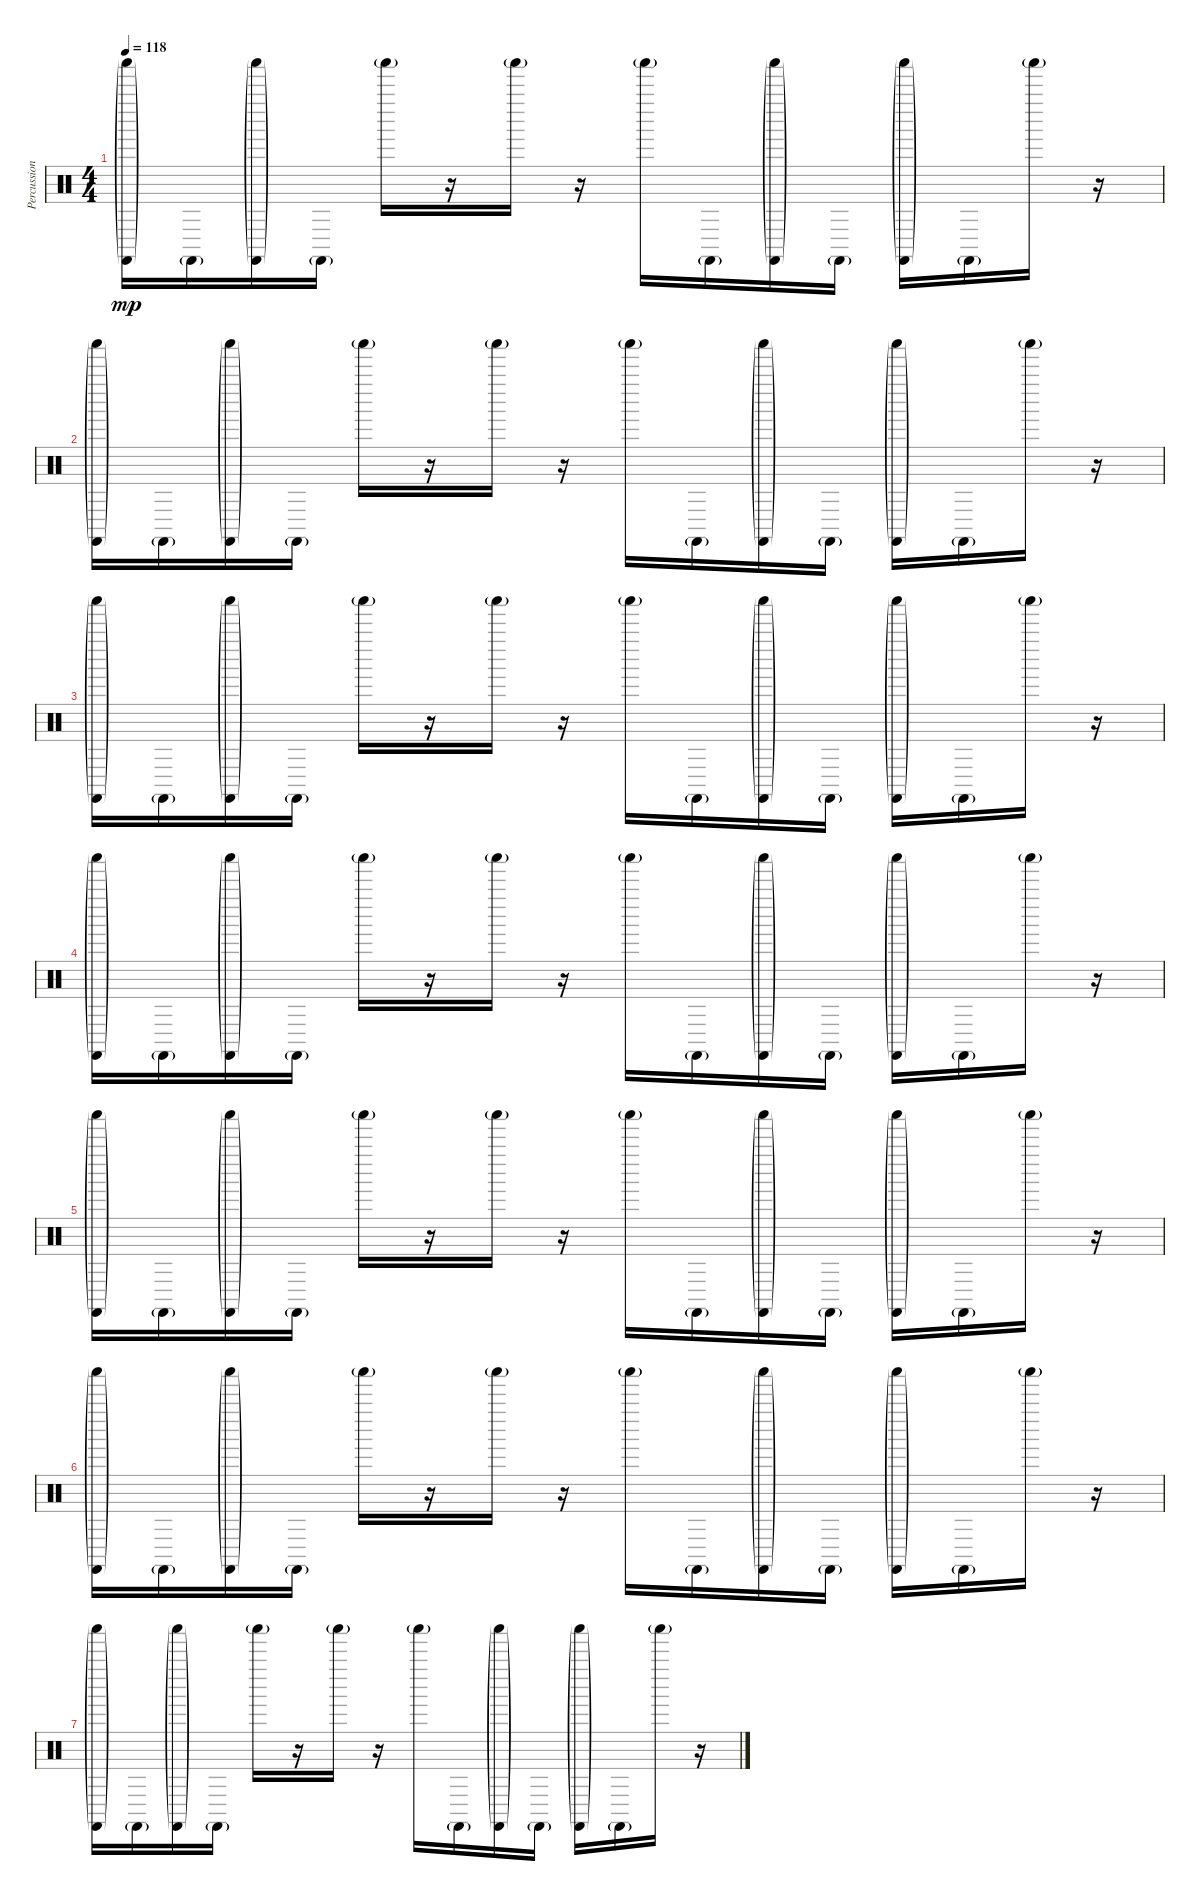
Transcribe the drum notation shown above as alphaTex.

\track ("Percussion" "Percussion") {instrument percussion}
\staff {score}
\articulation defaults
\ts (4 4)
\tempo 118
\clef neutral
\ks c
("Castanets (hit)"{g} "Shaker (hit)"{g}).16{dy mp} "Castanets (hit)"{g}.16 ("Castanets (hit)"{g} "Shaker (hit)"{g}).16 "Castanets (hit)"{g}.16 "Shaker (hit)"{g}.16 r.16 "Shaker (hit)"{g}.16 r.16 "Shaker (hit)"{g}.16 "Castanets (hit)"{g}.16 ("Castanets (hit)"{g} "Shaker (hit)"{g}).16 "Castanets (hit)"{g}.16 ("Castanets (hit)"{g} "Shaker (hit)"{g}).16 "Castanets (hit)"{g}.16 "Shaker (hit)"{g}.16 r.16 |
("Castanets (hit)"{g} "Shaker (hit)"{g}).16 "Castanets (hit)"{g}.16 ("Castanets (hit)"{g} "Shaker (hit)"{g}).16 "Castanets (hit)"{g}.16 "Shaker (hit)"{g}.16 r.16 "Shaker (hit)"{g}.16 r.16 "Shaker (hit)"{g}.16 "Castanets (hit)"{g}.16 ("Castanets (hit)"{g} "Shaker (hit)"{g}).16 "Castanets (hit)"{g}.16 ("Castanets (hit)"{g} "Shaker (hit)"{g}).16 "Castanets (hit)"{g}.16 "Shaker (hit)"{g}.16 r.16 |
("Castanets (hit)"{g} "Shaker (hit)"{g}).16 "Castanets (hit)"{g}.16 ("Castanets (hit)"{g} "Shaker (hit)"{g}).16 "Castanets (hit)"{g}.16 "Shaker (hit)"{g}.16 r.16 "Shaker (hit)"{g}.16 r.16 "Shaker (hit)"{g}.16 "Castanets (hit)"{g}.16 ("Castanets (hit)"{g} "Shaker (hit)"{g}).16 "Castanets (hit)"{g}.16 ("Castanets (hit)"{g} "Shaker (hit)"{g}).16 "Castanets (hit)"{g}.16 "Shaker (hit)"{g}.16 r.16 |
("Castanets (hit)"{g} "Shaker (hit)"{g}).16 "Castanets (hit)"{g}.16 ("Castanets (hit)"{g} "Shaker (hit)"{g}).16 "Castanets (hit)"{g}.16 "Shaker (hit)"{g}.16 r.16 "Shaker (hit)"{g}.16 r.16 "Shaker (hit)"{g}.16 "Castanets (hit)"{g}.16 ("Castanets (hit)"{g} "Shaker (hit)"{g}).16 "Castanets (hit)"{g}.16 ("Castanets (hit)"{g} "Shaker (hit)"{g}).16 "Castanets (hit)"{g}.16 "Shaker (hit)"{g}.16 r.16 |
("Castanets (hit)"{g} "Shaker (hit)"{g}).16 "Castanets (hit)"{g}.16 ("Castanets (hit)"{g} "Shaker (hit)"{g}).16 "Castanets (hit)"{g}.16 "Shaker (hit)"{g}.16 r.16 "Shaker (hit)"{g}.16 r.16 "Shaker (hit)"{g}.16 "Castanets (hit)"{g}.16 ("Castanets (hit)"{g} "Shaker (hit)"{g}).16 "Castanets (hit)"{g}.16 ("Castanets (hit)"{g} "Shaker (hit)"{g}).16 "Castanets (hit)"{g}.16 "Shaker (hit)"{g}.16 r.16 |
("Castanets (hit)"{g} "Shaker (hit)"{g}).16 "Castanets (hit)"{g}.16 ("Castanets (hit)"{g} "Shaker (hit)"{g}).16 "Castanets (hit)"{g}.16 "Shaker (hit)"{g}.16 r.16 "Shaker (hit)"{g}.16 r.16 "Shaker (hit)"{g}.16 "Castanets (hit)"{g}.16 ("Castanets (hit)"{g} "Shaker (hit)"{g}).16 "Castanets (hit)"{g}.16 ("Castanets (hit)"{g} "Shaker (hit)"{g}).16 "Castanets (hit)"{g}.16 "Shaker (hit)"{g}.16 r.16 |
("Castanets (hit)"{g} "Shaker (hit)"{g}).16 "Castanets (hit)"{g}.16 ("Castanets (hit)"{g} "Shaker (hit)"{g}).16 "Castanets (hit)"{g}.16 "Shaker (hit)"{g}.16 r.16 "Shaker (hit)"{g}.16 r.16 "Shaker (hit)"{g}.16 "Castanets (hit)"{g}.16 ("Castanets (hit)"{g} "Shaker (hit)"{g}).16 "Castanets (hit)"{g}.16 ("Castanets (hit)"{g} "Shaker (hit)"{g}).16 "Castanets (hit)"{g}.16 "Shaker (hit)"{g}.16 r.16
